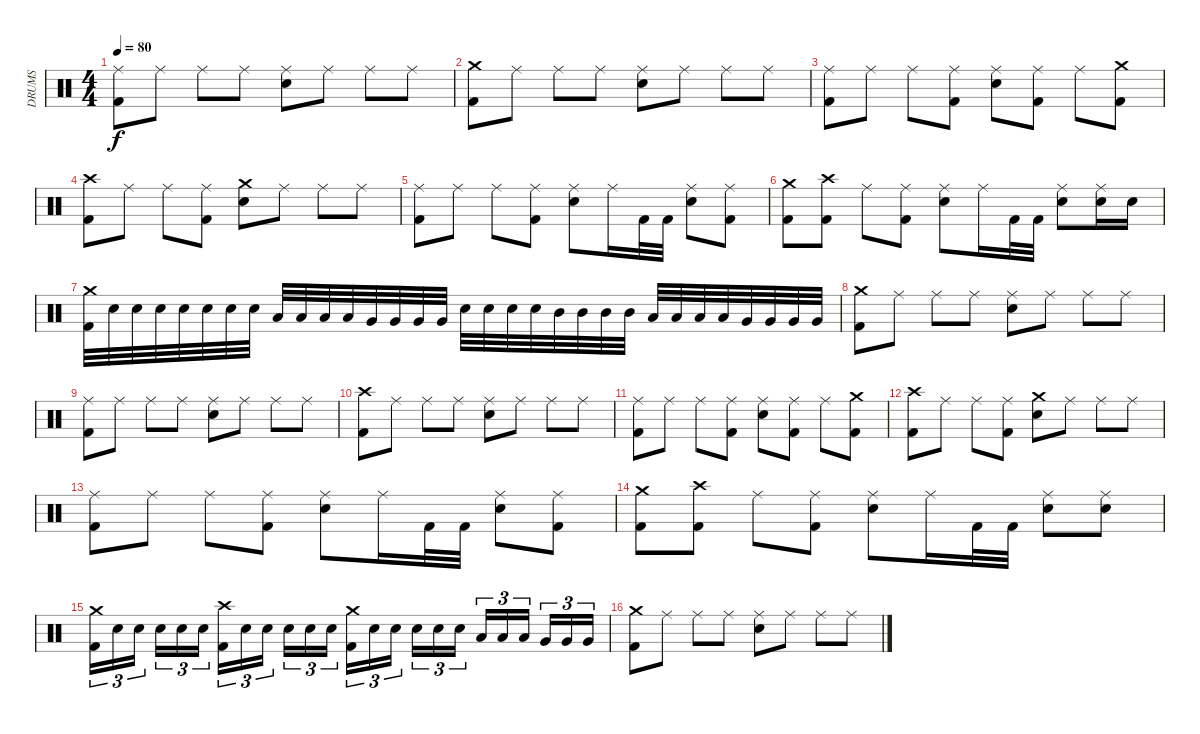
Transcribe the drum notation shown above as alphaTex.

\track ("DRUMS" "DRUMS") {instrument percussion}
\staff {score}
\articulation defaults
\ts (4 4)
\tempo 80
\clef neutral
\ks c
("Ride (middle)" "Kick (hit) 2").8{dy f} "Ride (middle)".8 "Ride (middle)".8 "Ride (middle)".8 ("Ride (middle)" "Snare (hit) 2").8 "Ride (middle)".8 "Ride (middle)".8 "Ride (middle)".8 |
("Crash medium (hit)" "Kick (hit) 2").8 "Ride (middle)".8 "Ride (middle)".8 "Ride (middle)".8 ("Ride (middle)" "Snare (hit) 2").8 "Ride (middle)".8 "Ride (middle)".8 "Ride (middle)".8 |
("Ride (middle)" "Kick (hit) 2").8 "Ride (middle)".8 "Ride (middle)".8 ("Ride (middle)" "Kick (hit) 2").8 ("Ride (middle)" "Snare (hit) 2").8 ("Ride (middle)" "Kick (hit) 2").8 "Ride (middle)".8 ("Crash medium (hit)" "Kick (hit) 2").8 |
("Crash high (hit)" "Kick (hit) 2").8 "Ride (middle)".8 "Ride (middle)".8 ("Ride (middle)" "Kick (hit) 2").8 ("Crash medium (hit)" "Snare (hit) 2").8 "Ride (middle)".8 "Ride (middle)".8 "Ride (middle)".8 |
("Ride (middle)" "Kick (hit) 2").8 "Ride (middle)".8 "Ride (middle)".8 ("Ride (middle)" "Kick (hit) 2").8 ("Ride (middle)" "Snare (hit) 2").8 "Ride (middle)".16 "Kick (hit) 2".32 "Kick (hit) 2".32 ("Ride (middle)" "Snare (hit) 2").8 ("Ride (middle)" "Kick (hit) 2").8 |
("Crash medium (hit)" "Kick (hit) 2").8 ("Crash high (hit)" "Kick (hit) 2").8 "Ride (middle)".8 ("Ride (middle)" "Kick (hit) 2").8 ("Ride (middle)" "Snare (hit) 2").8 "Ride (middle)".16 "Kick (hit) 2".32 "Kick (hit) 2".32 ("Ride (middle)" "Snare (hit) 2").8 ("Ride (middle)" "Snare (hit) 2").16 "Snare (hit) 2".16 |
("Crash medium (hit)" "Kick (hit) 2").32 "Snare (hit) 2".32 "Snare (hit) 2".32 "Snare (hit) 2".32 "Snare (hit) 2".32 "Snare (hit) 2".32 "Snare (hit) 2".32 "Snare (hit) 2".32 "Low Tom (hit)".32 "Low Tom (hit)".32 "Low Tom (hit)".32 "Low Tom (hit)".32 "Very Low Tom (hit)".32 "Very Low Tom (hit)".32 "Very Low Tom (hit)".32 "Very Low Tom (hit)".32 "Snare (hit) 2".32 "Snare (hit) 2".32 "Snare (hit) 2".32 "Snare (hit) 2".32 "Mid Tom (hit)".32 "Mid Tom (hit)".32 "Mid Tom (hit)".32 "Mid Tom (hit)".32 "Low Tom (hit)".32 "Low Tom (hit)".32 "Low Tom (hit)".32 "Low Tom (hit)".32 "Very Low Tom (hit)".32 "Very Low Tom (hit)".32 "Very Low Tom (hit)".32 "Very Low Tom (hit)".32 |
("Crash medium (hit)" "Kick (hit) 2").8 "Ride (middle)".8 "Ride (middle)".8 "Ride (middle)".8 ("Ride (middle)" "Snare (hit) 2").8 "Ride (middle)".8 "Ride (middle)".8 "Ride (middle)".8 |
("Ride (middle)" "Kick (hit) 2").8 "Ride (middle)".8 "Ride (middle)".8 "Ride (middle)".8 ("Ride (middle)" "Snare (hit) 2").8 "Ride (middle)".8 "Ride (middle)".8 "Ride (middle)".8 |
("Crash high (hit)" "Kick (hit) 2").8 "Ride (middle)".8 "Ride (middle)".8 "Ride (middle)".8 ("Ride (middle)" "Snare (hit) 2").8 "Ride (middle)".8 "Ride (middle)".8 "Ride (middle)".8 |
("Ride (middle)" "Kick (hit) 2").8 "Ride (middle)".8 "Ride (middle)".8 ("Ride (middle)" "Kick (hit) 2").8 ("Ride (middle)" "Snare (hit) 2").8 ("Ride (middle)" "Kick (hit) 2").8 "Ride (middle)".8 ("Crash medium (hit)" "Kick (hit) 2").8 |
("Crash high (hit)" "Kick (hit) 2").8 "Ride (middle)".8 "Ride (middle)".8 ("Ride (middle)" "Kick (hit) 2").8 ("Crash medium (hit)" "Snare (hit) 2").8 "Ride (middle)".8 "Ride (middle)".8 "Ride (middle)".8 |
("Ride (middle)" "Kick (hit) 2").8 "Ride (middle)".8 "Ride (middle)".8 ("Ride (middle)" "Kick (hit) 2").8 ("Ride (middle)" "Snare (hit) 2").8 "Ride (middle)".16 "Kick (hit) 2".32 "Kick (hit) 2".32 ("Ride (middle)" "Snare (hit) 2").8 ("Ride (middle)" "Kick (hit) 2").8 |
("Crash medium (hit)" "Kick (hit) 2").8 ("Crash high (hit)" "Kick (hit) 2").8 "Ride (middle)".8 ("Ride (middle)" "Kick (hit) 2").8 ("Ride (middle)" "Snare (hit) 2").8 "Ride (middle)".16 "Kick (hit) 2".32 "Kick (hit) 2".32 ("Ride (middle)" "Snare (hit) 2").8 ("Ride (middle)" "Snare (hit) 2").8 |
("Crash medium (hit)" "Kick (hit) 2").16{tu (3 2)} "Snare (hit) 2".16{tu (3 2)} "Snare (hit) 2".16{tu (3 2) beam splitsecondary} "Snare (hit) 2".16{tu (3 2)} "Snare (hit) 2".16{tu (3 2)} "Snare (hit) 2".16{tu (3 2)} ("Crash high (hit)" "Kick (hit) 2").16{tu (3 2)} "Snare (hit) 2".16{tu (3 2)} "Snare (hit) 2".16{tu (3 2) beam splitsecondary} "Snare (hit) 2".16{tu (3 2)} "Snare (hit) 2".16{tu (3 2)} "Snare (hit) 2".16{tu (3 2)} ("Crash medium (hit)" "Kick (hit) 2").16{tu (3 2)} "Snare (hit) 2".16{tu (3 2)} "Snare (hit) 2".16{tu (3 2) beam splitsecondary} "Snare (hit) 2".16{tu (3 2)} "Snare (hit) 2".16{tu (3 2)} "Snare (hit) 2".16{tu (3 2)} "Low Tom (hit)".16{tu (3 2)} "Low Tom (hit)".16{tu (3 2)} "Low Tom (hit)".16{tu (3 2) beam splitsecondary} "Very Low Tom (hit)".16{tu (3 2)} "Very Low Tom (hit)".16{tu (3 2)} "Very Low Tom (hit)".16{tu (3 2)} |
("Crash medium (hit)" "Kick (hit) 2").8 "Ride (middle)".8 "Ride (middle)".8 "Ride (middle)".8 ("Ride (middle)" "Snare (hit) 2").8 "Ride (middle)".8 "Ride (middle)".8 "Ride (middle)".8
